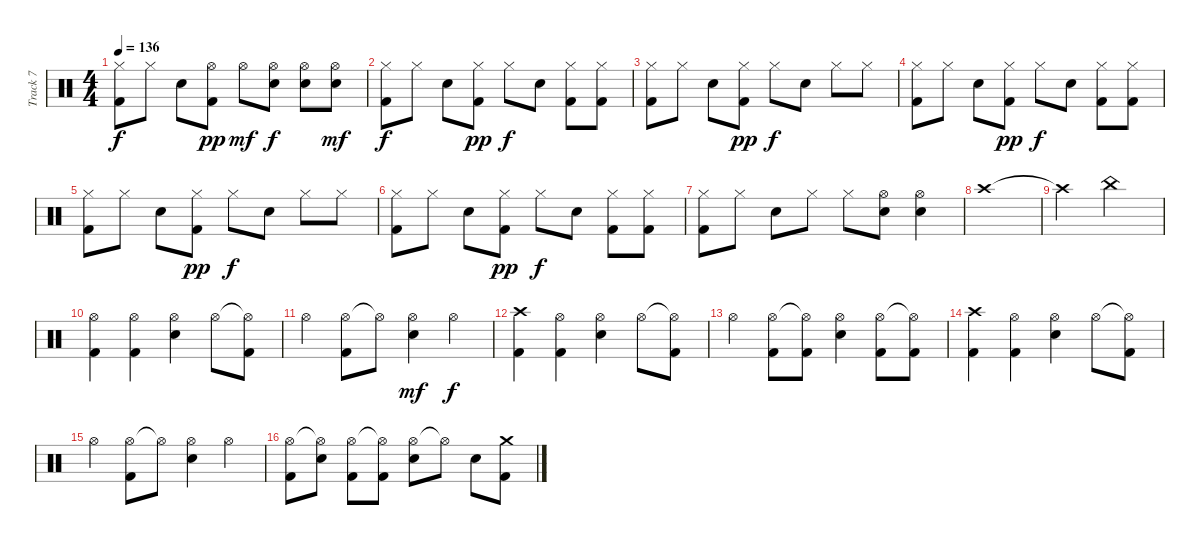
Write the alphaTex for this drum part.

\track ("Track 7" "Track 7") {instrument percussion}
\staff {score}
\articulation defaults
\ts (4 4)
\tempo 136
\clef neutral
\ks c
("Hi-Hat (closed)" "Kick (hit) 2").8{dy f} "Hi-Hat (closed)".8 "Electric Snare (hit)".8 ("Hi-Hat (open)" "Kick (hit) 2").8{dy pp} "Hi-Hat (open)".8{dy mf} ("Hi-Hat (open)" "Electric Snare (hit)").8{dy f} ("Hi-Hat (open)" "Electric Snare (hit)").8 ("Hi-Hat (open)" "Electric Snare (hit)").8{dy mf} |
("Hi-Hat (closed)" "Kick (hit) 2").8{dy f} "Hi-Hat (closed)".8 "Electric Snare (hit)".8 ("Hi-Hat (closed)" "Kick (hit) 2").8{dy pp} "Hi-Hat (closed)".8{dy f} "Electric Snare (hit)".8 ("Hi-Hat (closed)" "Kick (hit) 2").8 ("Hi-Hat (closed)" "Kick (hit) 2").8 |
("Hi-Hat (closed)" "Kick (hit) 2").8 "Hi-Hat (closed)".8 "Electric Snare (hit)".8 ("Hi-Hat (closed)" "Kick (hit) 2").8{dy pp} "Hi-Hat (closed)".8{dy f} "Electric Snare (hit)".8 "Hi-Hat (closed)".8 "Hi-Hat (closed)".8 |
("Hi-Hat (closed)" "Kick (hit) 2").8 "Hi-Hat (closed)".8 "Electric Snare (hit)".8 ("Hi-Hat (closed)" "Kick (hit) 2").8{dy pp} "Hi-Hat (closed)".8{dy f} "Electric Snare (hit)".8 ("Hi-Hat (closed)" "Kick (hit) 2").8 ("Hi-Hat (closed)" "Kick (hit) 2").8 |
("Hi-Hat (closed)" "Kick (hit) 2").8 "Hi-Hat (closed)".8 "Electric Snare (hit)".8 ("Hi-Hat (closed)" "Kick (hit) 2").8{dy pp} "Hi-Hat (closed)".8{dy f} "Electric Snare (hit)".8 "Hi-Hat (closed)".8 "Hi-Hat (closed)".8 |
("Hi-Hat (closed)" "Kick (hit) 2").8 "Hi-Hat (closed)".8 "Electric Snare (hit)".8 ("Hi-Hat (closed)" "Kick (hit) 2").8{dy pp} "Hi-Hat (closed)".8{dy f} "Electric Snare (hit)".8 ("Hi-Hat (closed)" "Kick (hit) 2").8 ("Hi-Hat (closed)" "Kick (hit) 2").8 |
("Hi-Hat (closed)" "Kick (hit) 2").8 "Hi-Hat (closed)".8 "Electric Snare (hit)".8 "Hi-Hat (closed)".8 "Hi-Hat (closed)".8 ("Hi-Hat (open)" "Electric Snare (hit)").8 ("Hi-Hat (open)" "Electric Snare (hit)").4 |
"Crash high (hit)".1 |
"Crash high (hit)"{t}.2 "China (hit)".2 |
("Hi-Hat (open)" "Kick (hit) 2").4 ("Hi-Hat (open)" "Kick (hit) 2").4 ("Hi-Hat (open)" "Electric Snare (hit)").4 "Hi-Hat (open)".8 ("Hi-Hat (open)"{t} "Kick (hit) 2").8 |
"Hi-Hat (open)".4 ("Hi-Hat (open)" "Kick (hit) 2").8 "Hi-Hat (open)"{t}.8 ("Hi-Hat (open)" "Electric Snare (hit)").4{dy mf} "Hi-Hat (open)".4{dy f} |
("Crash high (hit)" "Kick (hit) 2").4 ("Hi-Hat (open)" "Kick (hit) 2").4 ("Hi-Hat (open)" "Electric Snare (hit)").4 "Hi-Hat (open)".8 ("Hi-Hat (open)"{t} "Kick (hit) 2").8 |
"Hi-Hat (open)".4 ("Hi-Hat (open)" "Kick (hit) 2").8 ("Hi-Hat (open)"{t} "Kick (hit) 2").8 ("Hi-Hat (open)" "Electric Snare (hit)").4 ("Hi-Hat (open)" "Kick (hit) 2").8 ("Hi-Hat (open)"{t} "Kick (hit) 2").8 |
("Crash high (hit)" "Kick (hit) 2").4 ("Hi-Hat (open)" "Kick (hit) 2").4 ("Hi-Hat (open)" "Electric Snare (hit)").4 "Hi-Hat (open)".8 ("Hi-Hat (open)"{t} "Kick (hit) 2").8 |
"Hi-Hat (open)".4 ("Hi-Hat (open)" "Kick (hit) 2").8 "Hi-Hat (open)"{t}.8 ("Hi-Hat (open)" "Electric Snare (hit)").4 "Hi-Hat (open)".4 |
("Hi-Hat (open)" "Kick (hit) 2").8 ("Hi-Hat (open)"{t} "Electric Snare (hit)").8 ("Hi-Hat (open)" "Kick (hit) 2").8 ("Hi-Hat (open)"{t} "Kick (hit) 2").8 ("Hi-Hat (open)" "Electric Snare (hit)").8 "Hi-Hat (open)"{t}.8 "Electric Snare (hit)".8 ("Crash medium (hit)" "Kick (hit) 2").8
